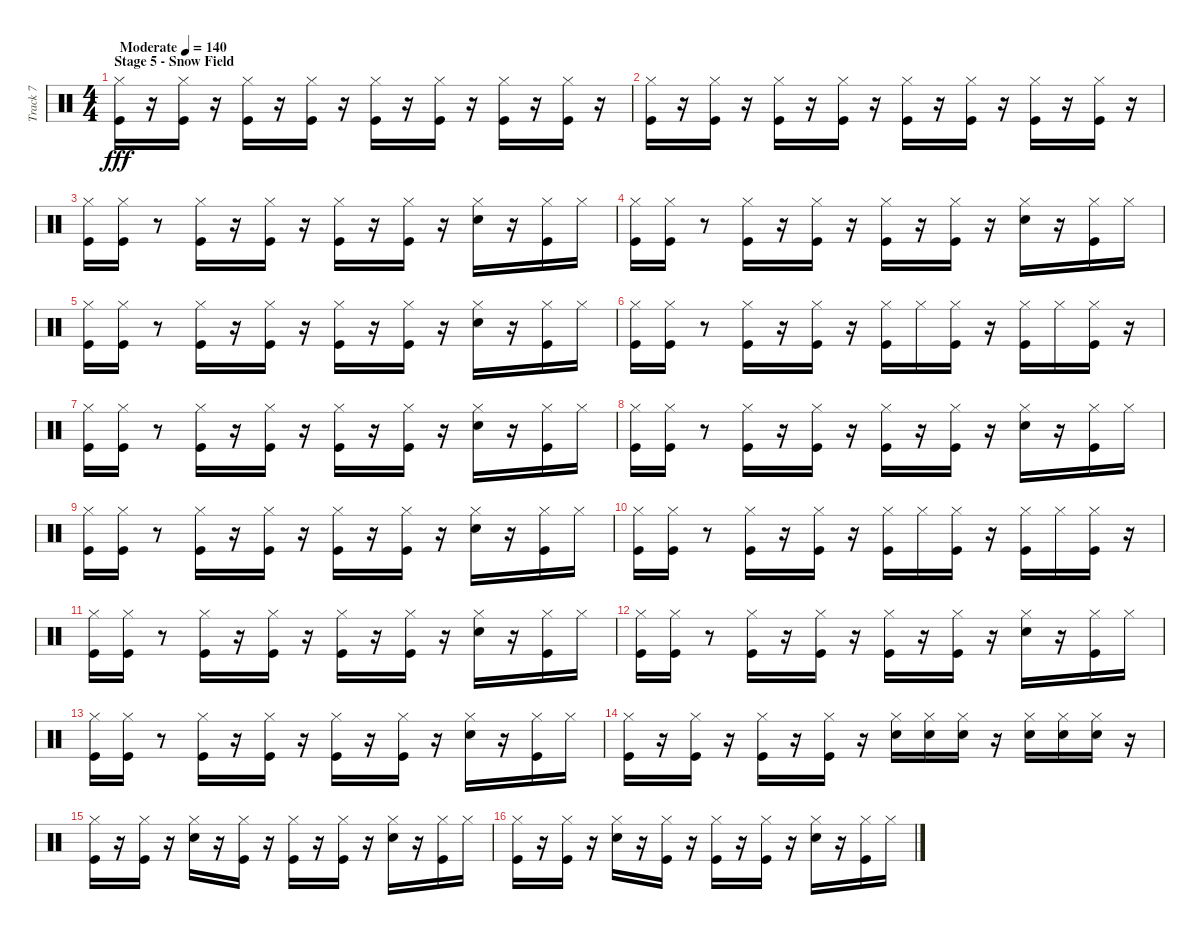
\track ("Track 7" "Track 7") {instrument percussion}
\staff {score}
\articulation defaults
\ts (4 4)
\section ("" "Stage 5 - Snow Field")
\tempo (140 "Moderate")
\clef neutral
\ks c
("Kick (hit)" "Hi-Hat (closed)").16{dy fff} r.16 ("Kick (hit)" "Hi-Hat (closed)").16 r.16 ("Kick (hit)" "Hi-Hat (closed)").16 r.16 ("Kick (hit)" "Hi-Hat (closed)").16 r.16 ("Kick (hit)" "Hi-Hat (closed)").16 r.16 ("Kick (hit)" "Hi-Hat (closed)").16 r.16 ("Kick (hit)" "Hi-Hat (closed)").16 r.16 ("Kick (hit)" "Hi-Hat (closed)").16 r.16 |
("Kick (hit)" "Hi-Hat (closed)").16 r.16 ("Kick (hit)" "Hi-Hat (closed)").16 r.16 ("Kick (hit)" "Hi-Hat (closed)").16 r.16 ("Kick (hit)" "Hi-Hat (closed)").16 r.16 ("Kick (hit)" "Hi-Hat (closed)").16 r.16 ("Kick (hit)" "Hi-Hat (closed)").16 r.16 ("Kick (hit)" "Hi-Hat (closed)").16 r.16 ("Kick (hit)" "Hi-Hat (closed)").16 r.16 |
("Kick (hit)" "Hi-Hat (closed)").16 ("Kick (hit)" "Hi-Hat (closed)").16 r.8 ("Kick (hit)" "Hi-Hat (closed)").16 r.16 ("Kick (hit)" "Hi-Hat (closed)").16 r.16 ("Kick (hit)" "Hi-Hat (closed)").16 r.16 ("Kick (hit)" "Hi-Hat (closed)").16 r.16 ("Snare (hit) 2" "Hi-Hat (closed)").16 r.16 ("Kick (hit)" "Hi-Hat (closed)").16 "Hi-Hat (closed)".16 |
("Kick (hit)" "Hi-Hat (closed)").16 ("Kick (hit)" "Hi-Hat (closed)").16 r.8 ("Kick (hit)" "Hi-Hat (closed)").16 r.16 ("Kick (hit)" "Hi-Hat (closed)").16 r.16 ("Kick (hit)" "Hi-Hat (closed)").16 r.16 ("Kick (hit)" "Hi-Hat (closed)").16 r.16 ("Snare (hit) 2" "Hi-Hat (closed)").16 r.16 ("Kick (hit)" "Hi-Hat (closed)").16 "Hi-Hat (closed)".16 |
("Kick (hit)" "Hi-Hat (closed)").16 ("Kick (hit)" "Hi-Hat (closed)").16 r.8 ("Kick (hit)" "Hi-Hat (closed)").16 r.16 ("Kick (hit)" "Hi-Hat (closed)").16 r.16 ("Kick (hit)" "Hi-Hat (closed)").16 r.16 ("Kick (hit)" "Hi-Hat (closed)").16 r.16 ("Snare (hit) 2" "Hi-Hat (closed)").16 r.16 ("Kick (hit)" "Hi-Hat (closed)").16 "Hi-Hat (closed)".16 |
("Kick (hit)" "Hi-Hat (closed)").16 ("Kick (hit)" "Hi-Hat (closed)").16 r.8 ("Kick (hit)" "Hi-Hat (closed)").16 r.16 ("Kick (hit)" "Hi-Hat (closed)").16 r.16 ("Kick (hit)" "Hi-Hat (closed)").16 "Hi-Hat (closed)".16 ("Kick (hit)" "Hi-Hat (closed)").16 r.16 ("Kick (hit)" "Hi-Hat (closed)").16 "Hi-Hat (closed)".16 ("Kick (hit)" "Hi-Hat (closed)").16 r.16 |
("Kick (hit)" "Hi-Hat (closed)").16 ("Kick (hit)" "Hi-Hat (closed)").16 r.8 ("Kick (hit)" "Hi-Hat (closed)").16 r.16 ("Kick (hit)" "Hi-Hat (closed)").16 r.16 ("Kick (hit)" "Hi-Hat (closed)").16 r.16 ("Kick (hit)" "Hi-Hat (closed)").16 r.16 ("Snare (hit) 2" "Hi-Hat (closed)").16 r.16 ("Kick (hit)" "Hi-Hat (closed)").16 "Hi-Hat (closed)".16 |
("Kick (hit)" "Hi-Hat (closed)").16 ("Kick (hit)" "Hi-Hat (closed)").16 r.8 ("Kick (hit)" "Hi-Hat (closed)").16 r.16 ("Kick (hit)" "Hi-Hat (closed)").16 r.16 ("Kick (hit)" "Hi-Hat (closed)").16 r.16 ("Kick (hit)" "Hi-Hat (closed)").16 r.16 ("Snare (hit) 2" "Hi-Hat (closed)").16 r.16 ("Kick (hit)" "Hi-Hat (closed)").16 "Hi-Hat (closed)".16 |
("Kick (hit)" "Hi-Hat (closed)").16 ("Kick (hit)" "Hi-Hat (closed)").16 r.8 ("Kick (hit)" "Hi-Hat (closed)").16 r.16 ("Kick (hit)" "Hi-Hat (closed)").16 r.16 ("Kick (hit)" "Hi-Hat (closed)").16 r.16 ("Kick (hit)" "Hi-Hat (closed)").16 r.16 ("Snare (hit) 2" "Hi-Hat (closed)").16 r.16 ("Kick (hit)" "Hi-Hat (closed)").16 "Hi-Hat (closed)".16 |
("Kick (hit)" "Hi-Hat (closed)").16 ("Kick (hit)" "Hi-Hat (closed)").16 r.8 ("Kick (hit)" "Hi-Hat (closed)").16 r.16 ("Kick (hit)" "Hi-Hat (closed)").16 r.16 ("Kick (hit)" "Hi-Hat (closed)").16 "Hi-Hat (closed)".16 ("Kick (hit)" "Hi-Hat (closed)").16 r.16 ("Kick (hit)" "Hi-Hat (closed)").16 "Hi-Hat (closed)".16 ("Kick (hit)" "Hi-Hat (closed)").16 r.16 |
("Kick (hit)" "Hi-Hat (closed)").16 ("Kick (hit)" "Hi-Hat (closed)").16 r.8 ("Kick (hit)" "Hi-Hat (closed)").16 r.16 ("Kick (hit)" "Hi-Hat (closed)").16 r.16 ("Kick (hit)" "Hi-Hat (closed)").16 r.16 ("Kick (hit)" "Hi-Hat (closed)").16 r.16 ("Snare (hit) 2" "Hi-Hat (closed)").16 r.16 ("Kick (hit)" "Hi-Hat (closed)").16 "Hi-Hat (closed)".16 |
("Kick (hit)" "Hi-Hat (closed)").16 ("Kick (hit)" "Hi-Hat (closed)").16 r.8 ("Kick (hit)" "Hi-Hat (closed)").16 r.16 ("Kick (hit)" "Hi-Hat (closed)").16 r.16 ("Kick (hit)" "Hi-Hat (closed)").16 r.16 ("Kick (hit)" "Hi-Hat (closed)").16 r.16 ("Snare (hit) 2" "Hi-Hat (closed)").16 r.16 ("Kick (hit)" "Hi-Hat (closed)").16 "Hi-Hat (closed)".16 |
("Kick (hit)" "Hi-Hat (closed)").16 ("Kick (hit)" "Hi-Hat (closed)").16 r.8 ("Kick (hit)" "Hi-Hat (closed)").16 r.16 ("Kick (hit)" "Hi-Hat (closed)").16 r.16 ("Kick (hit)" "Hi-Hat (closed)").16 r.16 ("Kick (hit)" "Hi-Hat (closed)").16 r.16 ("Snare (hit) 2" "Hi-Hat (closed)").16 r.16 ("Kick (hit)" "Hi-Hat (closed)").16 "Hi-Hat (closed)".16 |
("Kick (hit)" "Hi-Hat (closed)").16 r.16 ("Kick (hit)" "Hi-Hat (closed)").16 r.16 ("Kick (hit)" "Hi-Hat (closed)").16 r.16 ("Kick (hit)" "Hi-Hat (closed)").16 r.16 ("Snare (hit) 2" "Hi-Hat (closed)").16 ("Snare (hit) 2" "Hi-Hat (closed)").16 ("Snare (hit) 2" "Hi-Hat (closed)").16 r.16 ("Snare (hit) 2" "Hi-Hat (closed)").16 ("Snare (hit) 2" "Hi-Hat (closed)").16 ("Snare (hit) 2" "Hi-Hat (closed)").16 r.16 |
("Kick (hit)" "Hi-Hat (closed)").16 r.16 ("Kick (hit)" "Hi-Hat (closed)").16 r.16 ("Snare (hit) 2" "Hi-Hat (closed)").16 r.16 ("Kick (hit)" "Hi-Hat (closed)").16 r.16 ("Kick (hit)" "Hi-Hat (closed)").16 r.16 ("Kick (hit)" "Hi-Hat (closed)").16 r.16 ("Snare (hit) 2" "Hi-Hat (closed)").16 r.16 ("Kick (hit)" "Hi-Hat (closed)").16 "Hi-Hat (closed)".16 |
("Kick (hit)" "Hi-Hat (closed)").16 r.16 ("Kick (hit)" "Hi-Hat (closed)").16 r.16 ("Snare (hit) 2" "Hi-Hat (closed)").16 r.16 ("Kick (hit)" "Hi-Hat (closed)").16 r.16 ("Kick (hit)" "Hi-Hat (closed)").16 r.16 ("Kick (hit)" "Hi-Hat (closed)").16 r.16 ("Snare (hit) 2" "Hi-Hat (closed)").16 r.16 ("Kick (hit)" "Hi-Hat (closed)").16 "Hi-Hat (closed)".16
